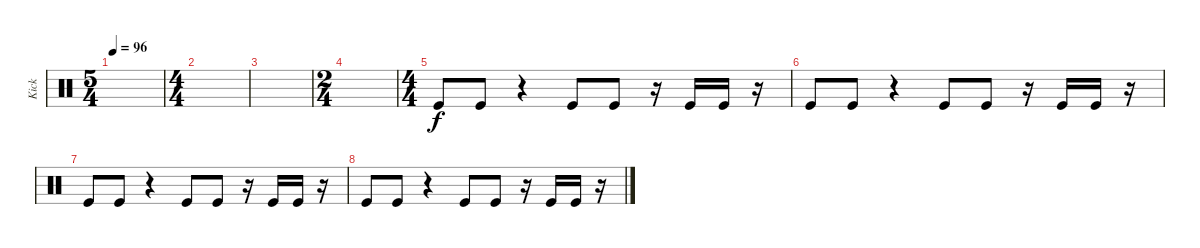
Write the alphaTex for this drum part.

\track ("Kick" "Kick") {instrument percussion}
\staff {score}
\articulation defaults
\ts (5 4)
\tempo 96
\clef neutral
\ks c
|
\ts (4 4)
|
|
\ts (2 4)
|
\ts (4 4)
"Kick (hit)".8 "Kick (hit)".8 r.4 "Kick (hit)".8 "Kick (hit)".8 r.16 "Kick (hit)".16 "Kick (hit)".16 r.16 |
"Kick (hit)".8 "Kick (hit)".8 r.4 "Kick (hit)".8 "Kick (hit)".8 r.16 "Kick (hit)".16 "Kick (hit)".16 r.16 |
"Kick (hit)".8 "Kick (hit)".8 r.4 "Kick (hit)".8 "Kick (hit)".8 r.16 "Kick (hit)".16 "Kick (hit)".16 r.16 |
"Kick (hit)".8 "Kick (hit)".8 r.4 "Kick (hit)".8 "Kick (hit)".8 r.16 "Kick (hit)".16 "Kick (hit)".16 r.16
